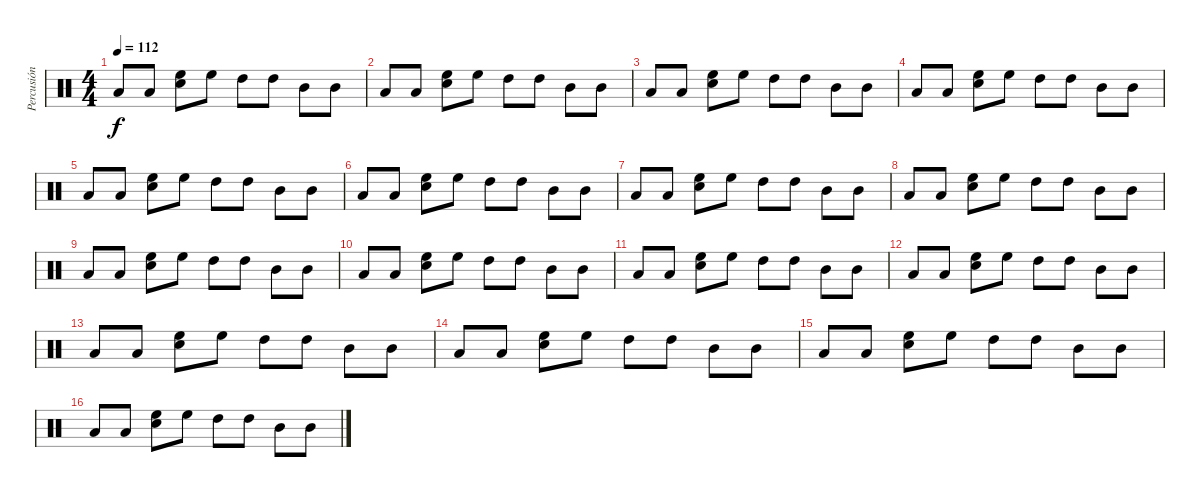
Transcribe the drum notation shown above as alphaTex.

\track ("Percusión" "Percusión") {instrument percussion}
\staff {score}
\articulation defaults
\ts (4 4)
\tempo 112
\clef neutral
\ks c "Low Tom (hit)".8{dy f} "Low Tom (hit)".8
("High Floor Tom (hit)" "Electric Snare (hit)").8 "High Floor Tom (hit)".8 "High Tom (hit)".8 "High Tom (hit)".8 "Mid Tom (hit)".8 "Mid Tom (hit)".8 |
"Low Tom (hit)".8 "Low Tom (hit)".8 ("High Floor Tom (hit)" "Electric Snare (hit)").8 "High Floor Tom (hit)".8 "High Tom (hit)".8 "High Tom (hit)".8 "Mid Tom (hit)".8 "Mid Tom (hit)".8 |
"Low Tom (hit)".8 "Low Tom (hit)".8 ("High Floor Tom (hit)" "Electric Snare (hit)").8 "High Floor Tom (hit)".8 "High Tom (hit)".8 "High Tom (hit)".8 "Mid Tom (hit)".8 "Mid Tom (hit)".8 |
"Low Tom (hit)".8 "Low Tom (hit)".8 ("High Floor Tom (hit)" "Electric Snare (hit)").8 "High Floor Tom (hit)".8 "High Tom (hit)".8 "High Tom (hit)".8 "Mid Tom (hit)".8 "Mid Tom (hit)".8 |
"Low Tom (hit)".8 "Low Tom (hit)".8 ("High Floor Tom (hit)" "Electric Snare (hit)").8 "High Floor Tom (hit)".8 "High Tom (hit)".8 "High Tom (hit)".8 "Mid Tom (hit)".8 "Mid Tom (hit)".8 |
"Low Tom (hit)".8 "Low Tom (hit)".8 ("High Floor Tom (hit)" "Electric Snare (hit)").8 "High Floor Tom (hit)".8 "High Tom (hit)".8 "High Tom (hit)".8 "Mid Tom (hit)".8 "Mid Tom (hit)".8 |
"Low Tom (hit)".8 "Low Tom (hit)".8 ("High Floor Tom (hit)" "Electric Snare (hit)").8 "High Floor Tom (hit)".8 "High Tom (hit)".8 "High Tom (hit)".8 "Mid Tom (hit)".8 "Mid Tom (hit)".8 |
"Low Tom (hit)".8 "Low Tom (hit)".8 ("High Floor Tom (hit)" "Electric Snare (hit)").8 "High Floor Tom (hit)".8 "High Tom (hit)".8 "High Tom (hit)".8 "Mid Tom (hit)".8 "Mid Tom (hit)".8 |
"Low Tom (hit)".8 "Low Tom (hit)".8 ("High Floor Tom (hit)" "Electric Snare (hit)").8 "High Floor Tom (hit)".8 "High Tom (hit)".8 "High Tom (hit)".8 "Mid Tom (hit)".8 "Mid Tom (hit)".8 |
"Low Tom (hit)".8 "Low Tom (hit)".8 ("High Floor Tom (hit)" "Electric Snare (hit)").8 "High Floor Tom (hit)".8 "High Tom (hit)".8 "High Tom (hit)".8 "Mid Tom (hit)".8 "Mid Tom (hit)".8 |
"Low Tom (hit)".8 "Low Tom (hit)".8 ("High Floor Tom (hit)" "Electric Snare (hit)").8 "High Floor Tom (hit)".8 "High Tom (hit)".8 "High Tom (hit)".8 "Mid Tom (hit)".8 "Mid Tom (hit)".8 |
"Low Tom (hit)".8 "Low Tom (hit)".8 ("High Floor Tom (hit)" "Electric Snare (hit)").8 "High Floor Tom (hit)".8 "High Tom (hit)".8 "High Tom (hit)".8 "Mid Tom (hit)".8 "Mid Tom (hit)".8 |
"Low Tom (hit)".8 "Low Tom (hit)".8 ("High Floor Tom (hit)" "Electric Snare (hit)").8 "High Floor Tom (hit)".8 "High Tom (hit)".8 "High Tom (hit)".8 "Mid Tom (hit)".8 "Mid Tom (hit)".8 |
"Low Tom (hit)".8 "Low Tom (hit)".8 ("High Floor Tom (hit)" "Electric Snare (hit)").8 "High Floor Tom (hit)".8 "High Tom (hit)".8 "High Tom (hit)".8 "Mid Tom (hit)".8 "Mid Tom (hit)".8 |
"Low Tom (hit)".8 "Low Tom (hit)".8 ("High Floor Tom (hit)" "Electric Snare (hit)").8 "High Floor Tom (hit)".8 "High Tom (hit)".8 "High Tom (hit)".8 "Mid Tom (hit)".8 "Mid Tom (hit)".8 |
"Low Tom (hit)".8 "Low Tom (hit)".8 ("High Floor Tom (hit)" "Electric Snare (hit)").8 "High Floor Tom (hit)".8 "High Tom (hit)".8 "High Tom (hit)".8 "Mid Tom (hit)".8 "Mid Tom (hit)".8
